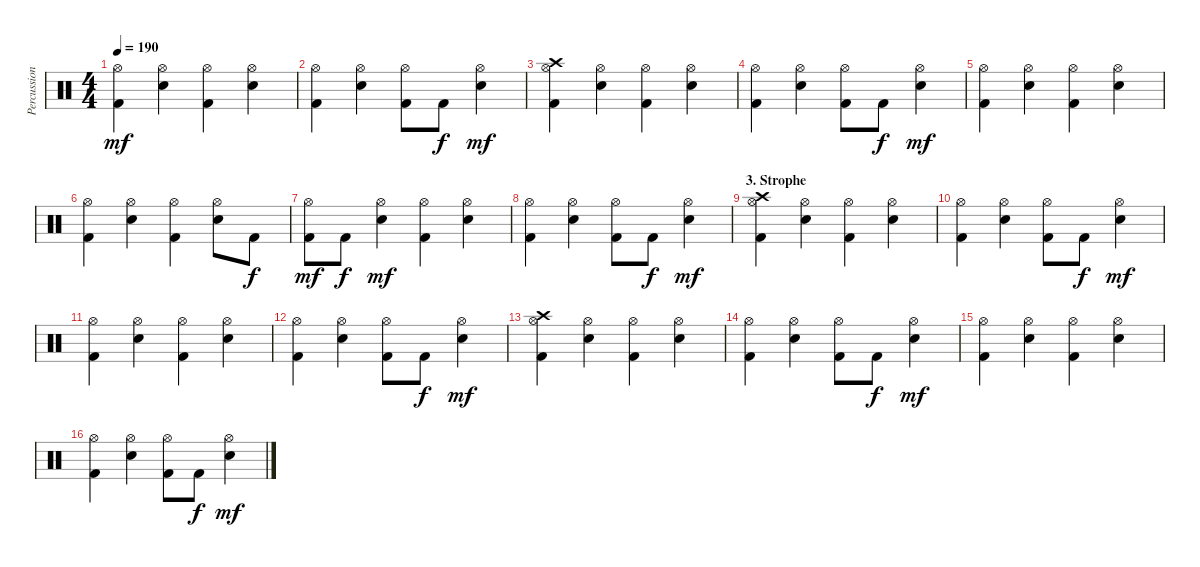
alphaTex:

\track ("Percussion" "Percussion") {instrument percussion}
\staff {score}
\articulation defaults
\ts (4 4)
\tempo 190
\clef neutral
\ks c
("Hi-Hat (open)" "Kick (hit) 2").4{dy mf} ("Hi-Hat (open)" "Electric Snare (hit)").4 ("Hi-Hat (open)" "Kick (hit) 2").4 ("Hi-Hat (open)" "Electric Snare (hit)").4 |
("Hi-Hat (open)" "Kick (hit) 2").4 ("Hi-Hat (open)" "Electric Snare (hit)").4 ("Hi-Hat (open)" "Kick (hit) 2").8 "Kick (hit) 2".8{dy f} ("Hi-Hat (open)" "Electric Snare (hit)").4{dy mf} |
("Crash high (hit)" "Hi-Hat (open)" "Kick (hit) 2").4 ("Hi-Hat (open)" "Electric Snare (hit)").4 ("Hi-Hat (open)" "Kick (hit) 2").4 ("Hi-Hat (open)" "Electric Snare (hit)").4 |
("Hi-Hat (open)" "Kick (hit) 2").4 ("Hi-Hat (open)" "Electric Snare (hit)").4 ("Hi-Hat (open)" "Kick (hit) 2").8 "Kick (hit) 2".8{dy f} ("Hi-Hat (open)" "Electric Snare (hit)").4{dy mf} |
("Hi-Hat (open)" "Kick (hit) 2").4 ("Hi-Hat (open)" "Electric Snare (hit)").4 ("Hi-Hat (open)" "Kick (hit) 2").4 ("Hi-Hat (open)" "Electric Snare (hit)").4 |
("Hi-Hat (open)" "Kick (hit) 2").4 ("Hi-Hat (open)" "Electric Snare (hit)").4 ("Hi-Hat (open)" "Kick (hit) 2").4 ("Hi-Hat (open)" "Electric Snare (hit)").8 "Kick (hit) 2".8{dy f} |
("Hi-Hat (open)" "Kick (hit) 2").8{dy mf} "Kick (hit) 2".8{dy f} ("Hi-Hat (open)" "Electric Snare (hit)").4{dy mf} ("Hi-Hat (open)" "Kick (hit) 2").4 ("Hi-Hat (open)" "Electric Snare (hit)").4 |
("Hi-Hat (open)" "Kick (hit) 2").4 ("Hi-Hat (open)" "Electric Snare (hit)").4 ("Hi-Hat (open)" "Kick (hit) 2").8 "Kick (hit) 2".8{dy f} ("Hi-Hat (open)" "Electric Snare (hit)").4{dy mf} |
\section ("" "3. Strophe")
("Crash high (hit)" "Hi-Hat (open)" "Kick (hit) 2").4 ("Hi-Hat (open)" "Electric Snare (hit)").4 ("Hi-Hat (open)" "Kick (hit) 2").4 ("Hi-Hat (open)" "Electric Snare (hit)").4 |
("Hi-Hat (open)" "Kick (hit) 2").4 ("Hi-Hat (open)" "Electric Snare (hit)").4 ("Hi-Hat (open)" "Kick (hit) 2").8 "Kick (hit) 2".8{dy f} ("Hi-Hat (open)" "Electric Snare (hit)").4{dy mf} |
("Hi-Hat (open)" "Kick (hit) 2").4 ("Hi-Hat (open)" "Electric Snare (hit)").4 ("Hi-Hat (open)" "Kick (hit) 2").4 ("Hi-Hat (open)" "Electric Snare (hit)").4 |
("Hi-Hat (open)" "Kick (hit) 2").4 ("Hi-Hat (open)" "Electric Snare (hit)").4 ("Hi-Hat (open)" "Kick (hit) 2").8 "Kick (hit) 2".8{dy f} ("Hi-Hat (open)" "Electric Snare (hit)").4{dy mf} |
("Crash high (hit)" "Hi-Hat (open)" "Kick (hit) 2").4 ("Hi-Hat (open)" "Electric Snare (hit)").4 ("Hi-Hat (open)" "Kick (hit) 2").4 ("Hi-Hat (open)" "Electric Snare (hit)").4 |
("Hi-Hat (open)" "Kick (hit) 2").4 ("Hi-Hat (open)" "Electric Snare (hit)").4 ("Hi-Hat (open)" "Kick (hit) 2").8 "Kick (hit) 2".8{dy f} ("Hi-Hat (open)" "Electric Snare (hit)").4{dy mf} |
("Hi-Hat (open)" "Kick (hit) 2").4 ("Hi-Hat (open)" "Electric Snare (hit)").4 ("Hi-Hat (open)" "Kick (hit) 2").4 ("Hi-Hat (open)" "Electric Snare (hit)").4 |
("Hi-Hat (open)" "Kick (hit) 2").4 ("Hi-Hat (open)" "Electric Snare (hit)").4 ("Hi-Hat (open)" "Kick (hit) 2").8 "Kick (hit) 2".8{dy f} ("Hi-Hat (open)" "Electric Snare (hit)").4{dy mf}
